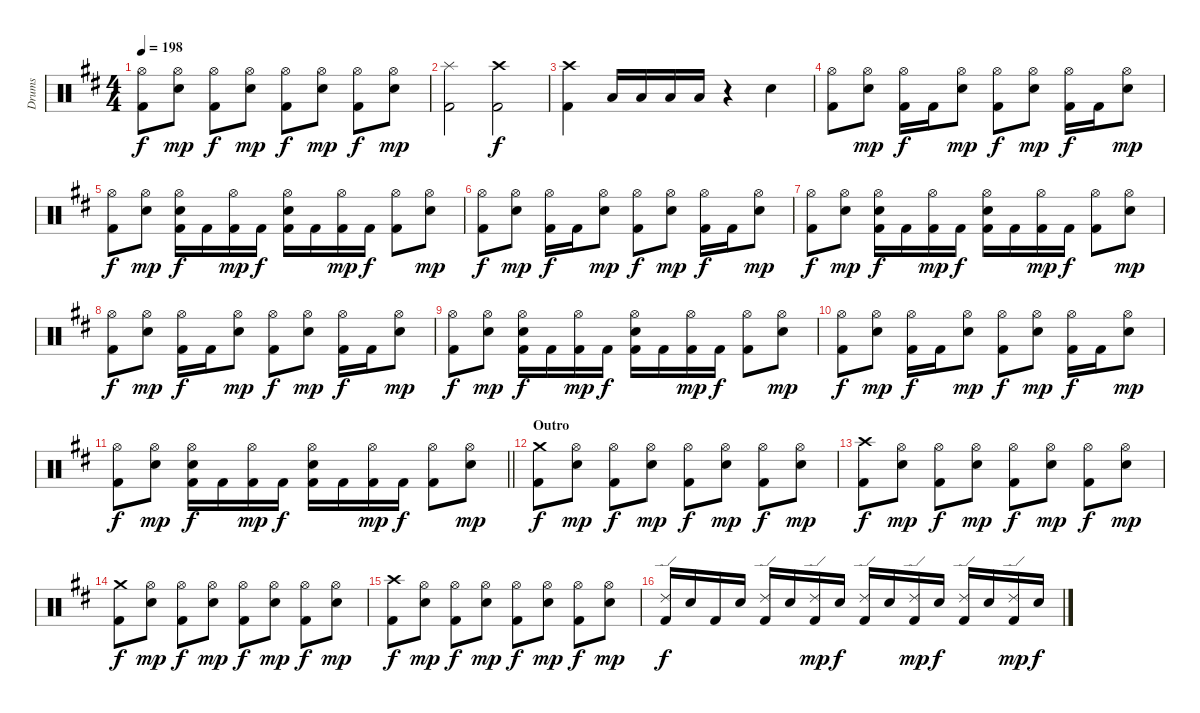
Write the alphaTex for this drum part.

\track ("Drums" "Drums") {instrument percussion}
\staff {score}
\articulation defaults
\ts (4 4)
\tempo 198
\clef neutral
\ks d
("Hi-Hat (open)" "Kick (hit) 2").8{dy f} ("Hi-Hat (open)" "Snare (hit) 2").8{dy mp} ("Hi-Hat (open)" "Kick (hit) 2").8{dy f} ("Hi-Hat (open)" "Snare (hit) 2").8{dy mp} ("Hi-Hat (open)" "Kick (hit) 2").8{dy f} ("Hi-Hat (open)" "Snare (hit) 2").8{dy mp} ("Hi-Hat (open)" "Kick (hit) 2").8{dy f} ("Hi-Hat (open)" "Snare (hit) 2").8{dy mp} |
("Splash (hit)" "Kick (hit) 2").2 ("Crash high (hit)" "Kick (hit) 2").2{dy f} |
("Crash high (hit)" "Kick (hit) 2").4 "Low Tom (hit)".16 "Low Tom (hit)".16 "Low Tom (hit)".16 "Low Tom (hit)".16 r.4 "Snare (hit) 2".4 |
("Hi-Hat (open)" "Kick (hit) 2").8 ("Hi-Hat (open)" "Snare (hit) 2").8{dy mp} ("Hi-Hat (open)" "Kick (hit) 2").16{dy f} "Kick (hit) 2".16 ("Hi-Hat (open)" "Snare (hit) 2").8{dy mp} ("Hi-Hat (open)" "Kick (hit) 2").8{dy f} ("Hi-Hat (open)" "Snare (hit) 2").8{dy mp} ("Hi-Hat (open)" "Kick (hit) 2").16{dy f} "Kick (hit) 2".16 ("Hi-Hat (open)" "Snare (hit) 2").8{dy mp} |
("Hi-Hat (open)" "Kick (hit) 2").8{dy f} ("Hi-Hat (open)" "Snare (hit) 2").8{dy mp} ("Hi-Hat (open)" "Snare (hit) 2" "Kick (hit) 2").16{dy f} "Kick (hit) 2".16 ("Hi-Hat (open)" "Kick (hit) 2").16{dy mp} "Kick (hit) 2".16{dy f} ("Hi-Hat (open)" "Snare (hit) 2" "Kick (hit) 2").16 "Kick (hit) 2".16 ("Hi-Hat (open)" "Kick (hit) 2").16{dy mp} "Kick (hit) 2".16{dy f} ("Hi-Hat (open)" "Kick (hit) 2").8 ("Hi-Hat (open)" "Snare (hit) 2").8{dy mp} |
("Hi-Hat (open)" "Kick (hit) 2").8{dy f} ("Hi-Hat (open)" "Snare (hit) 2").8{dy mp} ("Hi-Hat (open)" "Kick (hit) 2").16{dy f} "Kick (hit) 2".16 ("Hi-Hat (open)" "Snare (hit) 2").8{dy mp} ("Hi-Hat (open)" "Kick (hit) 2").8{dy f} ("Hi-Hat (open)" "Snare (hit) 2").8{dy mp} ("Hi-Hat (open)" "Kick (hit) 2").16{dy f} "Kick (hit) 2".16 ("Hi-Hat (open)" "Snare (hit) 2").8{dy mp} |
("Hi-Hat (open)" "Kick (hit) 2").8{dy f} ("Hi-Hat (open)" "Snare (hit) 2").8{dy mp} ("Hi-Hat (open)" "Snare (hit) 2" "Kick (hit) 2").16{dy f} "Kick (hit) 2".16 ("Hi-Hat (open)" "Kick (hit) 2").16{dy mp} "Kick (hit) 2".16{dy f} ("Hi-Hat (open)" "Snare (hit) 2" "Kick (hit) 2").16 "Kick (hit) 2".16 ("Hi-Hat (open)" "Kick (hit) 2").16{dy mp} "Kick (hit) 2".16{dy f} ("Hi-Hat (open)" "Kick (hit) 2").8 ("Hi-Hat (open)" "Snare (hit) 2").8{dy mp} |
("Hi-Hat (open)" "Kick (hit) 2").8{dy f} ("Hi-Hat (open)" "Snare (hit) 2").8{dy mp} ("Hi-Hat (open)" "Kick (hit) 2").16{dy f} "Kick (hit) 2".16 ("Hi-Hat (open)" "Snare (hit) 2").8{dy mp} ("Hi-Hat (open)" "Kick (hit) 2").8{dy f} ("Hi-Hat (open)" "Snare (hit) 2").8{dy mp} ("Hi-Hat (open)" "Kick (hit) 2").16{dy f} "Kick (hit) 2".16 ("Hi-Hat (open)" "Snare (hit) 2").8{dy mp} |
("Hi-Hat (open)" "Kick (hit) 2").8{dy f} ("Hi-Hat (open)" "Snare (hit) 2").8{dy mp} ("Hi-Hat (open)" "Snare (hit) 2" "Kick (hit) 2").16{dy f} "Kick (hit) 2".16 ("Hi-Hat (open)" "Kick (hit) 2").16{dy mp} "Kick (hit) 2".16{dy f} ("Hi-Hat (open)" "Snare (hit) 2" "Kick (hit) 2").16 "Kick (hit) 2".16 ("Hi-Hat (open)" "Kick (hit) 2").16{dy mp} "Kick (hit) 2".16{dy f} ("Hi-Hat (open)" "Kick (hit) 2").8 ("Hi-Hat (open)" "Snare (hit) 2").8{dy mp} |
("Hi-Hat (open)" "Kick (hit) 2").8{dy f} ("Hi-Hat (open)" "Snare (hit) 2").8{dy mp} ("Hi-Hat (open)" "Kick (hit) 2").16{dy f} "Kick (hit) 2".16 ("Hi-Hat (open)" "Snare (hit) 2").8{dy mp} ("Hi-Hat (open)" "Kick (hit) 2").8{dy f} ("Hi-Hat (open)" "Snare (hit) 2").8{dy mp} ("Hi-Hat (open)" "Kick (hit) 2").16{dy f} "Kick (hit) 2".16 ("Hi-Hat (open)" "Snare (hit) 2").8{dy mp} |
\barLineRight lightlight
("Hi-Hat (open)" "Kick (hit) 2").8{dy f} ("Hi-Hat (open)" "Snare (hit) 2").8{dy mp} ("Hi-Hat (open)" "Snare (hit) 2" "Kick (hit) 2").16{dy f} "Kick (hit) 2".16 ("Hi-Hat (open)" "Kick (hit) 2").16{dy mp} "Kick (hit) 2".16{dy f} ("Hi-Hat (open)" "Snare (hit) 2" "Kick (hit) 2").16 "Kick (hit) 2".16 ("Hi-Hat (open)" "Kick (hit) 2").16{dy mp} "Kick (hit) 2".16{dy f} ("Hi-Hat (open)" "Kick (hit) 2").8 ("Hi-Hat (open)" "Snare (hit) 2").8{dy mp} |
\section ("" "Outro")
("Crash medium (hit)" "Kick (hit) 2").8{dy f} ("Hi-Hat (open)" "Snare (hit) 2").8{dy mp} ("Hi-Hat (open)" "Kick (hit) 2").8{dy f} ("Hi-Hat (open)" "Snare (hit) 2").8{dy mp} ("Hi-Hat (open)" "Kick (hit) 2").8{dy f} ("Hi-Hat (open)" "Snare (hit) 2").8{dy mp} ("Hi-Hat (open)" "Kick (hit) 2").8{dy f} ("Hi-Hat (open)" "Snare (hit) 2").8{dy mp} |
("Crash high (hit)" "Kick (hit) 2").8{dy f} ("Hi-Hat (open)" "Snare (hit) 2").8{dy mp} ("Hi-Hat (open)" "Kick (hit) 2").8{dy f} ("Hi-Hat (open)" "Snare (hit) 2").8{dy mp} ("Hi-Hat (open)" "Kick (hit) 2").8{dy f} ("Hi-Hat (open)" "Snare (hit) 2").8{dy mp} ("Hi-Hat (open)" "Kick (hit) 2").8{dy f} ("Hi-Hat (open)" "Snare (hit) 2").8{dy mp} |
("Crash medium (hit)" "Kick (hit) 2").8{dy f} ("Hi-Hat (open)" "Snare (hit) 2").8{dy mp} ("Hi-Hat (open)" "Kick (hit) 2").8{dy f} ("Hi-Hat (open)" "Snare (hit) 2").8{dy mp} ("Hi-Hat (open)" "Kick (hit) 2").8{dy f} ("Hi-Hat (open)" "Snare (hit) 2").8{dy mp} ("Hi-Hat (open)" "Kick (hit) 2").8{dy f} ("Hi-Hat (open)" "Snare (hit) 2").8{dy mp} |
("Crash high (hit)" "Kick (hit) 2").8{dy f} ("Hi-Hat (open)" "Snare (hit) 2").8{dy mp} ("Hi-Hat (open)" "Kick (hit) 2").8{dy f} ("Hi-Hat (open)" "Snare (hit) 2").8{dy mp} ("Hi-Hat (open)" "Kick (hit) 2").8{dy f} ("Hi-Hat (open)" "Snare (hit) 2").8{dy mp} ("Hi-Hat (open)" "Kick (hit) 2").8{dy f} ("Hi-Hat (open)" "Snare (hit) 2").8{dy mp} |
("Ride (edge) 2" "Kick (hit) 2").16{dy f} "Snare (hit) 2".16 "Kick (hit) 2".16 "Snare (hit) 2".16 ("Ride (edge) 2" "Kick (hit) 2").16 "Snare (hit) 2".16 ("Ride (edge) 2" "Kick (hit) 2").16{dy mp} "Snare (hit) 2".16{dy f} ("Ride (edge) 2" "Kick (hit) 2").16 "Snare (hit) 2".16 ("Ride (edge) 2" "Kick (hit) 2").16{dy mp} "Snare (hit) 2".16{dy f} ("Ride (edge) 2" "Kick (hit) 2").16 "Snare (hit) 2".16 ("Ride (edge) 2" "Kick (hit) 2").16{dy mp} "Snare (hit) 2".16{dy f}
